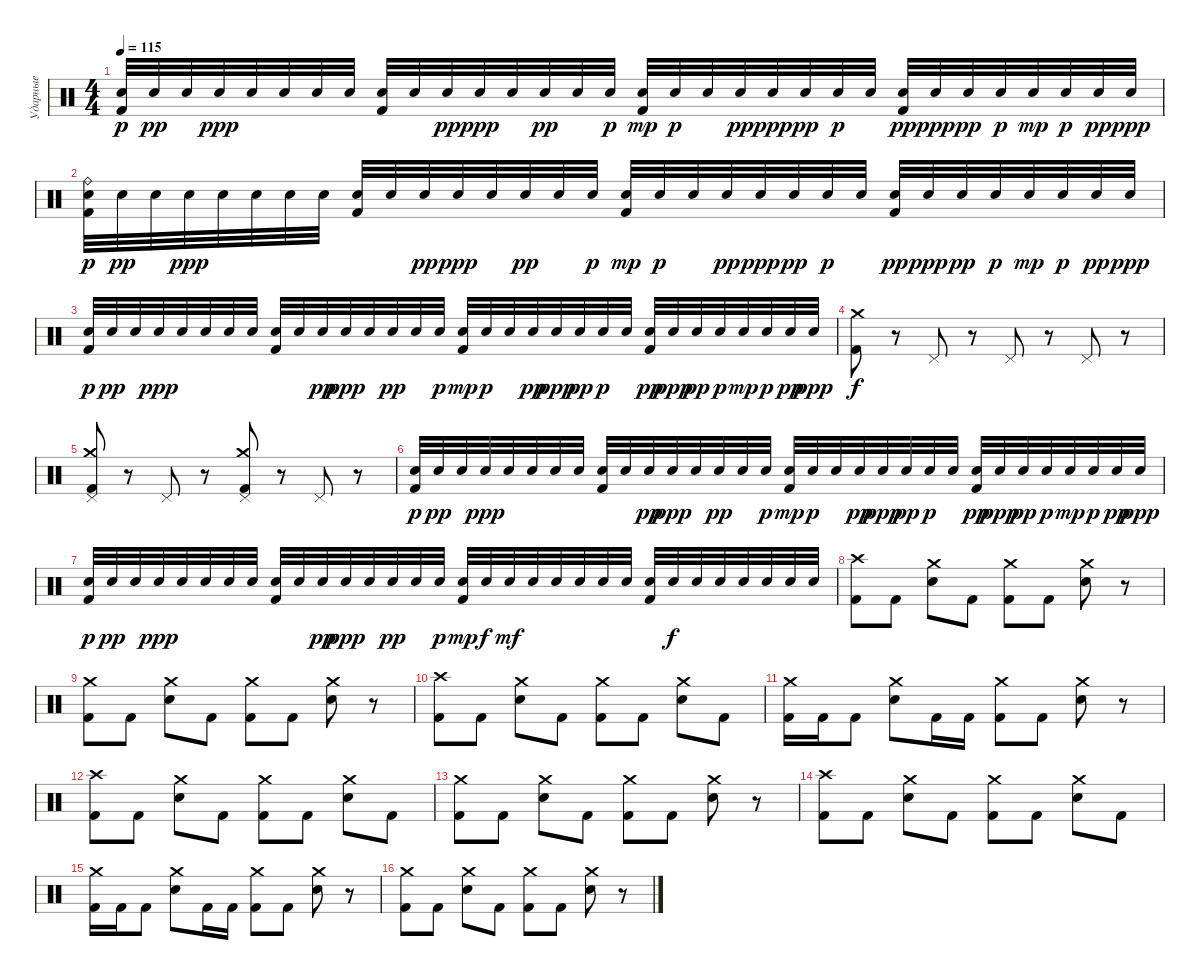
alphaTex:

\track ("Ударные" "Ударные") {instrument percussion}
\staff {score}
\articulation defaults
\ts (4 4)
\tempo 115
\clef neutral
\ks c
("Electric Snare (hit)" "Kick (hit) 2").32{dy p} "Electric Snare (hit)".32{dy pp} "Electric Snare (hit)".32 "Electric Snare (hit)".32{dy ppp} "Electric Snare (hit)".32 "Electric Snare (hit)".32 "Electric Snare (hit)".32 "Electric Snare (hit)".32 ("Electric Snare (hit)" "Kick (hit) 2").32 "Electric Snare (hit)".32 "Electric Snare (hit)".32{dy pp} "Electric Snare (hit)".32{dy ppp} "Electric Snare (hit)".32 "Electric Snare (hit)".32{dy pp} "Electric Snare (hit)".32 "Electric Snare (hit)".32{dy p} ("Electric Snare (hit)" "Kick (hit) 2").32{dy mp} "Electric Snare (hit)".32{dy p} "Electric Snare (hit)".32 "Electric Snare (hit)".32{dy pp} "Electric Snare (hit)".32{dy ppp} "Electric Snare (hit)".32{dy pp} "Electric Snare (hit)".32{dy p} "Electric Snare (hit)".32 ("Electric Snare (hit)" "Kick (hit) 2").32{dy pp} "Electric Snare (hit)".32{dy ppp} "Electric Snare (hit)".32{dy pp} "Electric Snare (hit)".32{dy p} "Electric Snare (hit)".32{dy mp} "Electric Snare (hit)".32{dy p} "Electric Snare (hit)".32{dy pp} "Electric Snare (hit)".32{dy ppp} |
("Ride (bell)" "Electric Snare (hit)" "Kick (hit) 2").32{dy p} "Electric Snare (hit)".32{dy pp} "Electric Snare (hit)".32 "Electric Snare (hit)".32{dy ppp} "Electric Snare (hit)".32 "Electric Snare (hit)".32 "Electric Snare (hit)".32 "Electric Snare (hit)".32 ("Electric Snare (hit)" "Kick (hit) 2").32 "Electric Snare (hit)".32 "Electric Snare (hit)".32{dy pp} "Electric Snare (hit)".32{dy ppp} "Electric Snare (hit)".32 "Electric Snare (hit)".32{dy pp} "Electric Snare (hit)".32 "Electric Snare (hit)".32{dy p} ("Electric Snare (hit)" "Kick (hit) 2").32{dy mp} "Electric Snare (hit)".32{dy p} "Electric Snare (hit)".32 "Electric Snare (hit)".32{dy pp} "Electric Snare (hit)".32{dy ppp} "Electric Snare (hit)".32{dy pp} "Electric Snare (hit)".32{dy p} "Electric Snare (hit)".32 ("Electric Snare (hit)" "Kick (hit) 2").32{dy pp} "Electric Snare (hit)".32{dy ppp} "Electric Snare (hit)".32{dy pp} "Electric Snare (hit)".32{dy p} "Electric Snare (hit)".32{dy mp} "Electric Snare (hit)".32{dy p} "Electric Snare (hit)".32{dy pp} "Electric Snare (hit)".32{dy ppp} |
("Electric Snare (hit)" "Kick (hit) 2").32{dy p} "Electric Snare (hit)".32{dy pp} "Electric Snare (hit)".32 "Electric Snare (hit)".32{dy ppp} "Electric Snare (hit)".32 "Electric Snare (hit)".32 "Electric Snare (hit)".32 "Electric Snare (hit)".32 ("Electric Snare (hit)" "Kick (hit) 2").32 "Electric Snare (hit)".32 "Electric Snare (hit)".32{dy pp} "Electric Snare (hit)".32{dy ppp} "Electric Snare (hit)".32 "Electric Snare (hit)".32{dy pp} "Electric Snare (hit)".32 "Electric Snare (hit)".32{dy p} ("Electric Snare (hit)" "Kick (hit) 2").32{dy mp} "Electric Snare (hit)".32{dy p} "Electric Snare (hit)".32 "Electric Snare (hit)".32{dy pp} "Electric Snare (hit)".32{dy ppp} "Electric Snare (hit)".32{dy pp} "Electric Snare (hit)".32{dy p} "Electric Snare (hit)".32 ("Electric Snare (hit)" "Kick (hit) 2").32{dy pp} "Electric Snare (hit)".32{dy ppp} "Electric Snare (hit)".32{dy pp} "Electric Snare (hit)".32{dy p} "Electric Snare (hit)".32{dy mp} "Electric Snare (hit)".32{dy p} "Electric Snare (hit)".32{dy pp} "Electric Snare (hit)".32{dy ppp} |
("Crash medium (hit)" "Kick (hit) 2").8{dy f} r.8 "Pedal Hi-Hat (hit)".8 r.8 "Pedal Hi-Hat (hit)".8 r.8 "Pedal Hi-Hat (hit)".8 r.8 |
("Pedal Hi-Hat (hit)" "Crash medium (hit)" "Kick (hit) 2").8 r.8 "Pedal Hi-Hat (hit)".8 r.8 ("Pedal Hi-Hat (hit)" "Crash medium (hit)" "Kick (hit) 2").8 r.8 "Pedal Hi-Hat (hit)".8 r.8 |
("Electric Snare (hit)" "Kick (hit) 2").32{dy p} "Electric Snare (hit)".32{dy pp} "Electric Snare (hit)".32 "Electric Snare (hit)".32{dy ppp} "Electric Snare (hit)".32 "Electric Snare (hit)".32 "Electric Snare (hit)".32 "Electric Snare (hit)".32 ("Electric Snare (hit)" "Kick (hit) 2").32 "Electric Snare (hit)".32 "Electric Snare (hit)".32{dy pp} "Electric Snare (hit)".32{dy ppp} "Electric Snare (hit)".32 "Electric Snare (hit)".32{dy pp} "Electric Snare (hit)".32 "Electric Snare (hit)".32{dy p} ("Electric Snare (hit)" "Kick (hit) 2").32{dy mp} "Electric Snare (hit)".32{dy p} "Electric Snare (hit)".32 "Electric Snare (hit)".32{dy pp} "Electric Snare (hit)".32{dy ppp} "Electric Snare (hit)".32{dy pp} "Electric Snare (hit)".32{dy p} "Electric Snare (hit)".32 ("Electric Snare (hit)" "Kick (hit) 2").32{dy pp} "Electric Snare (hit)".32{dy ppp} "Electric Snare (hit)".32{dy pp} "Electric Snare (hit)".32{dy p} "Electric Snare (hit)".32{dy mp} "Electric Snare (hit)".32{dy p} "Electric Snare (hit)".32{dy pp} "Electric Snare (hit)".32{dy ppp} |
("Electric Snare (hit)" "Kick (hit) 2").32{dy p} "Electric Snare (hit)".32{dy pp} "Electric Snare (hit)".32 "Electric Snare (hit)".32{dy ppp} "Electric Snare (hit)".32 "Electric Snare (hit)".32 "Electric Snare (hit)".32 "Electric Snare (hit)".32 ("Electric Snare (hit)" "Kick (hit) 2").32 "Electric Snare (hit)".32 "Electric Snare (hit)".32{dy pp} "Electric Snare (hit)".32{dy ppp} "Electric Snare (hit)".32 "Electric Snare (hit)".32{dy pp} "Electric Snare (hit)".32 "Electric Snare (hit)".32{dy p} ("Electric Snare (hit)" "Kick (hit) 2").32{dy mp} "Electric Snare (hit)".32{dy f} "Electric Snare (hit)".32{dy mf} "Electric Snare (hit)".32 "Electric Snare (hit)".32 "Electric Snare (hit)".32 "Electric Snare (hit)".32 "Electric Snare (hit)".32 ("Electric Snare (hit)" "Kick (hit) 2").32 "Electric Snare (hit)".32{dy f} "Electric Snare (hit)".32 "Electric Snare (hit)".32 "Electric Snare (hit)".32 "Electric Snare (hit)".32 "Electric Snare (hit)".32 "Electric Snare (hit)".32 |
("Crash high (hit)" "Kick (hit) 2").8 "Kick (hit) 2".8 ("Crash medium (hit)" "Electric Snare (hit)").8 "Kick (hit) 2".8 ("Crash medium (hit)" "Kick (hit) 2").8 "Kick (hit) 2".8 ("Crash medium (hit)" "Electric Snare (hit)").8 r.8 |
("Crash medium (hit)" "Kick (hit) 2").8 "Kick (hit) 2".8 ("Crash medium (hit)" "Electric Snare (hit)").8 "Kick (hit) 2".8 ("Crash medium (hit)" "Kick (hit) 2").8 "Kick (hit) 2".8 ("Crash medium (hit)" "Electric Snare (hit)").8 r.8 |
("Crash high (hit)" "Kick (hit) 2").8 "Kick (hit) 2".8 ("Crash medium (hit)" "Electric Snare (hit)").8 "Kick (hit) 2".8 ("Crash medium (hit)" "Kick (hit) 2").8 "Kick (hit) 2".8 ("Crash medium (hit)" "Electric Snare (hit)").8 "Kick (hit) 2".8 |
("Crash medium (hit)" "Kick (hit) 2").16 "Kick (hit) 2".16 "Kick (hit) 2".8 ("Crash medium (hit)" "Electric Snare (hit)").8 "Kick (hit) 2".16 "Kick (hit) 2".16 ("Crash medium (hit)" "Kick (hit) 2").8 "Kick (hit) 2".8 ("Crash medium (hit)" "Electric Snare (hit)").8 r.8 |
("Crash high (hit)" "Kick (hit) 2").8 "Kick (hit) 2".8 ("Crash medium (hit)" "Electric Snare (hit)").8 "Kick (hit) 2".8 ("Crash medium (hit)" "Kick (hit) 2").8 "Kick (hit) 2".8 ("Crash medium (hit)" "Electric Snare (hit)").8 "Kick (hit) 2".8 |
("Crash medium (hit)" "Kick (hit) 2").8 "Kick (hit) 2".8 ("Crash medium (hit)" "Electric Snare (hit)").8 "Kick (hit) 2".8 ("Crash medium (hit)" "Kick (hit) 2").8 "Kick (hit) 2".8 ("Crash medium (hit)" "Electric Snare (hit)").8 r.8 |
("Crash high (hit)" "Kick (hit) 2").8 "Kick (hit) 2".8 ("Crash medium (hit)" "Electric Snare (hit)").8 "Kick (hit) 2".8 ("Crash medium (hit)" "Kick (hit) 2").8 "Kick (hit) 2".8 ("Crash medium (hit)" "Electric Snare (hit)").8 "Kick (hit) 2".8 |
("Crash medium (hit)" "Kick (hit) 2").16 "Kick (hit) 2".16 "Kick (hit) 2".8 ("Crash medium (hit)" "Electric Snare (hit)").8 "Kick (hit) 2".16 "Kick (hit) 2".16 ("Crash medium (hit)" "Kick (hit) 2").8 "Kick (hit) 2".8 ("Crash medium (hit)" "Electric Snare (hit)").8 r.8 |
("Crash medium (hit)" "Kick (hit) 2").8 "Kick (hit) 2".8 ("Crash medium (hit)" "Electric Snare (hit)").8 "Kick (hit) 2".8 ("Crash medium (hit)" "Kick (hit) 2").8 "Kick (hit) 2".8 ("Crash medium (hit)" "Electric Snare (hit)").8 r.8
